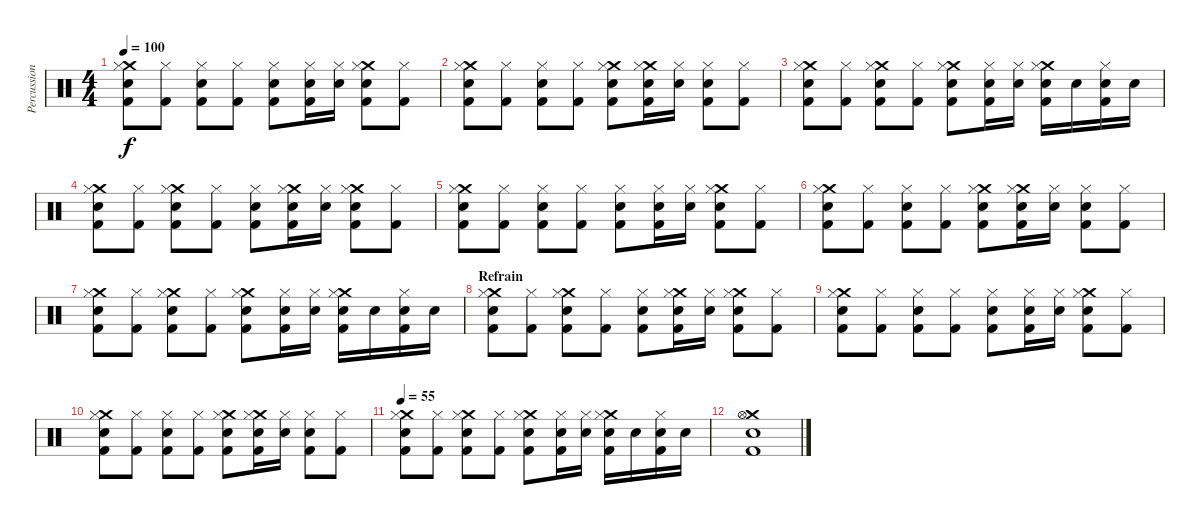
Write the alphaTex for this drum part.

\track ("Percussions" "Percussion") {instrument percussion}
\staff {score}
\articulation defaults
\ts (4 4)
\tempo 100
\clef neutral
\ks c
("Crash medium (hit)" "Kick (hit) 2" "Hi-Hat (closed)" "Electric Snare (hit)").8{dy f} ("Kick (hit) 2" "Hi-Hat (closed)").8 ("Kick (hit) 2" "Hi-Hat (closed)" "Electric Snare (hit)").8 ("Kick (hit) 2" "Hi-Hat (closed)").8 ("Kick (hit) 2" "Hi-Hat (closed)" "Electric Snare (hit)").8 ("Kick (hit) 2" "Hi-Hat (closed)" "Electric Snare (hit)").16 ("Hi-Hat (closed)" "Electric Snare (hit)").16 ("Crash medium (hit)" "Kick (hit) 2" "Hi-Hat (closed)" "Electric Snare (hit)").8 ("Kick (hit) 2" "Hi-Hat (closed)").8 |
("Crash medium (hit)" "Kick (hit) 2" "Hi-Hat (closed)" "Electric Snare (hit)").8 ("Kick (hit) 2" "Hi-Hat (closed)").8 ("Kick (hit) 2" "Hi-Hat (closed)" "Electric Snare (hit)").8 ("Kick (hit) 2" "Hi-Hat (closed)").8 ("Crash medium (hit)" "Kick (hit) 2" "Hi-Hat (closed)" "Electric Snare (hit)").8 ("Crash medium (hit)" "Kick (hit) 2" "Hi-Hat (closed)" "Electric Snare (hit)").16 ("Hi-Hat (closed)" "Electric Snare (hit)").16 ("Kick (hit) 2" "Hi-Hat (closed)" "Electric Snare (hit)").8 ("Kick (hit) 2" "Hi-Hat (closed)").8 |
("Crash medium (hit)" "Kick (hit) 2" "Hi-Hat (closed)" "Electric Snare (hit)").8 ("Kick (hit) 2" "Hi-Hat (closed)").8 ("Crash medium (hit)" "Kick (hit) 2" "Hi-Hat (closed)" "Electric Snare (hit)").8 ("Kick (hit) 2" "Hi-Hat (closed)").8 ("Crash medium (hit)" "Kick (hit) 2" "Hi-Hat (closed)" "Electric Snare (hit)").8 ("Kick (hit) 2" "Hi-Hat (closed)" "Electric Snare (hit)").16 ("Hi-Hat (closed)" "Electric Snare (hit)").16 ("Crash medium (hit)" "Kick (hit) 2" "Hi-Hat (closed)" "Electric Snare (hit)").16 "Electric Snare (hit)".16 ("Kick (hit) 2" "Hi-Hat (closed)" "Electric Snare (hit)").16 "Electric Snare (hit)".16 |
("Crash medium (hit)" "Kick (hit) 2" "Hi-Hat (closed)" "Electric Snare (hit)").8 ("Kick (hit) 2" "Hi-Hat (closed)").8 ("Crash medium (hit)" "Kick (hit) 2" "Hi-Hat (closed)" "Electric Snare (hit)").8 ("Kick (hit) 2" "Hi-Hat (closed)").8 ("Kick (hit) 2" "Hi-Hat (closed)" "Electric Snare (hit)").8 ("Crash medium (hit)" "Kick (hit) 2" "Hi-Hat (closed)" "Electric Snare (hit)").16 ("Hi-Hat (closed)" "Electric Snare (hit)").16 ("Crash medium (hit)" "Kick (hit) 2" "Hi-Hat (closed)" "Electric Snare (hit)").8 ("Kick (hit) 2" "Hi-Hat (closed)").8 |
("Crash medium (hit)" "Kick (hit) 2" "Hi-Hat (closed)" "Electric Snare (hit)").8 ("Kick (hit) 2" "Hi-Hat (closed)").8 ("Kick (hit) 2" "Hi-Hat (closed)" "Electric Snare (hit)").8 ("Kick (hit) 2" "Hi-Hat (closed)").8 ("Kick (hit) 2" "Hi-Hat (closed)" "Electric Snare (hit)").8 ("Kick (hit) 2" "Hi-Hat (closed)" "Electric Snare (hit)").16 ("Hi-Hat (closed)" "Electric Snare (hit)").16 ("Crash medium (hit)" "Kick (hit) 2" "Hi-Hat (closed)" "Electric Snare (hit)").8 ("Kick (hit) 2" "Hi-Hat (closed)").8 |
("Crash medium (hit)" "Kick (hit) 2" "Hi-Hat (closed)" "Electric Snare (hit)").8 ("Kick (hit) 2" "Hi-Hat (closed)").8 ("Kick (hit) 2" "Hi-Hat (closed)" "Electric Snare (hit)").8 ("Kick (hit) 2" "Hi-Hat (closed)").8 ("Crash medium (hit)" "Kick (hit) 2" "Hi-Hat (closed)" "Electric Snare (hit)").8 ("Crash medium (hit)" "Kick (hit) 2" "Hi-Hat (closed)" "Electric Snare (hit)").16 ("Hi-Hat (closed)" "Electric Snare (hit)").16 ("Kick (hit) 2" "Hi-Hat (closed)" "Electric Snare (hit)").8 ("Kick (hit) 2" "Hi-Hat (closed)").8 |
("Crash medium (hit)" "Kick (hit) 2" "Hi-Hat (closed)" "Electric Snare (hit)").8 ("Kick (hit) 2" "Hi-Hat (closed)").8 ("Crash medium (hit)" "Kick (hit) 2" "Hi-Hat (closed)" "Electric Snare (hit)").8 ("Kick (hit) 2" "Hi-Hat (closed)").8 ("Crash medium (hit)" "Kick (hit) 2" "Hi-Hat (closed)" "Electric Snare (hit)").8 ("Kick (hit) 2" "Hi-Hat (closed)" "Electric Snare (hit)").16 ("Hi-Hat (closed)" "Electric Snare (hit)").16 ("Crash medium (hit)" "Kick (hit) 2" "Hi-Hat (closed)" "Electric Snare (hit)").16 "Electric Snare (hit)".16 ("Kick (hit) 2" "Hi-Hat (closed)" "Electric Snare (hit)").16 "Electric Snare (hit)".16 |
\section ("" "Refrain")
("Crash medium (hit)" "Kick (hit) 2" "Hi-Hat (closed)" "Electric Snare (hit)").8 ("Kick (hit) 2" "Hi-Hat (closed)").8 ("Crash medium (hit)" "Kick (hit) 2" "Hi-Hat (closed)" "Electric Snare (hit)").8 ("Kick (hit) 2" "Hi-Hat (closed)").8 ("Kick (hit) 2" "Hi-Hat (closed)" "Electric Snare (hit)").8 ("Crash medium (hit)" "Kick (hit) 2" "Hi-Hat (closed)" "Electric Snare (hit)").16 ("Hi-Hat (closed)" "Electric Snare (hit)").16 ("Crash medium (hit)" "Kick (hit) 2" "Hi-Hat (closed)" "Electric Snare (hit)").8 ("Kick (hit) 2" "Hi-Hat (closed)").8 |
("Crash medium (hit)" "Kick (hit) 2" "Hi-Hat (closed)" "Electric Snare (hit)").8 ("Kick (hit) 2" "Hi-Hat (closed)").8 ("Kick (hit) 2" "Hi-Hat (closed)" "Electric Snare (hit)").8 ("Kick (hit) 2" "Hi-Hat (closed)").8 ("Kick (hit) 2" "Hi-Hat (closed)" "Electric Snare (hit)").8 ("Kick (hit) 2" "Hi-Hat (closed)" "Electric Snare (hit)").16 ("Hi-Hat (closed)" "Electric Snare (hit)").16 ("Crash medium (hit)" "Kick (hit) 2" "Hi-Hat (closed)" "Electric Snare (hit)").8 ("Kick (hit) 2" "Hi-Hat (closed)").8 |
("Crash medium (hit)" "Kick (hit) 2" "Hi-Hat (closed)" "Electric Snare (hit)").8 ("Kick (hit) 2" "Hi-Hat (closed)").8 ("Kick (hit) 2" "Hi-Hat (closed)" "Electric Snare (hit)").8 ("Kick (hit) 2" "Hi-Hat (closed)").8 ("Crash medium (hit)" "Kick (hit) 2" "Hi-Hat (closed)" "Electric Snare (hit)").8 ("Crash medium (hit)" "Kick (hit) 2" "Hi-Hat (closed)" "Electric Snare (hit)").16 ("Hi-Hat (closed)" "Electric Snare (hit)").16 ("Kick (hit) 2" "Hi-Hat (closed)" "Electric Snare (hit)").8 ("Kick (hit) 2" "Hi-Hat (closed)").8 |
\tempo 55
("Crash medium (hit)" "Kick (hit) 2" "Hi-Hat (closed)" "Electric Snare (hit)").8 ("Kick (hit) 2" "Hi-Hat (closed)").8 ("Crash medium (hit)" "Kick (hit) 2" "Hi-Hat (closed)" "Electric Snare (hit)").8 ("Kick (hit) 2" "Hi-Hat (closed)").8 ("Crash medium (hit)" "Kick (hit) 2" "Hi-Hat (closed)" "Electric Snare (hit)").8 ("Kick (hit) 2" "Hi-Hat (closed)" "Electric Snare (hit)").16 ("Hi-Hat (closed)" "Electric Snare (hit)").16 ("Crash medium (hit)" "Kick (hit) 2" "Hi-Hat (closed)" "Electric Snare (hit)").16 "Electric Snare (hit)".16 ("Kick (hit) 2" "Hi-Hat (closed)" "Electric Snare (hit)").16 "Electric Snare (hit)".16 |
("Crash medium (hit)" "Kick (hit) 2" "Electric Snare (hit)" "Hi-Hat (open)").1
